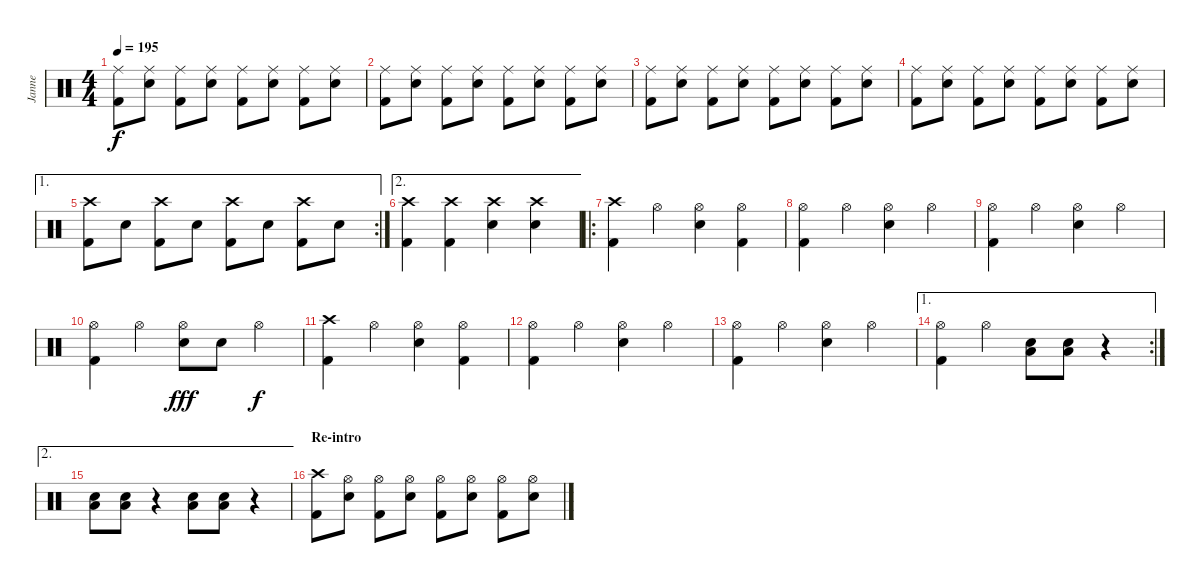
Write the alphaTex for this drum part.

\track ("Janne" "Janne") {instrument percussion}
\staff {score}
\articulation defaults
\ts (4 4)
\tempo 195
\clef neutral
\ks c
("Ride (middle)" "Kick (hit) 2").8{dy f} ("Ride (middle)" "Electric Snare (hit)").8 ("Ride (middle)" "Kick (hit) 2").8 ("Ride (middle)" "Electric Snare (hit)").8 ("Ride (middle)" "Kick (hit) 2").8 ("Ride (middle)" "Electric Snare (hit)").8 ("Ride (middle)" "Kick (hit) 2").8 ("Ride (middle)" "Electric Snare (hit)").8 |
("Ride (middle)" "Kick (hit) 2").8 ("Ride (middle)" "Electric Snare (hit)").8 ("Ride (middle)" "Kick (hit) 2").8 ("Ride (middle)" "Electric Snare (hit)").8 ("Ride (middle)" "Kick (hit) 2").8 ("Ride (middle)" "Electric Snare (hit)").8 ("Ride (middle)" "Kick (hit) 2").8 ("Ride (middle)" "Electric Snare (hit)").8 |
("Ride (middle)" "Kick (hit) 2").8 ("Ride (middle)" "Electric Snare (hit)").8 ("Ride (middle)" "Kick (hit) 2").8 ("Ride (middle)" "Electric Snare (hit)").8 ("Ride (middle)" "Kick (hit) 2").8 ("Ride (middle)" "Electric Snare (hit)").8 ("Ride (middle)" "Kick (hit) 2").8 ("Ride (middle)" "Electric Snare (hit)").8 |
("Ride (middle)" "Kick (hit) 2").8 ("Ride (middle)" "Electric Snare (hit)").8 ("Ride (middle)" "Kick (hit) 2").8 ("Ride (middle)" "Electric Snare (hit)").8 ("Ride (middle)" "Kick (hit) 2").8 ("Ride (middle)" "Electric Snare (hit)").8 ("Ride (middle)" "Kick (hit) 2").8 ("Ride (middle)" "Electric Snare (hit)").8 |
\ae 1
\rc 2
("Crash high (hit)" "Kick (hit) 2").8 "Electric Snare (hit)".8 ("Crash high (hit)" "Kick (hit) 2").8 "Electric Snare (hit)".8 ("Crash high (hit)" "Kick (hit) 2").8 "Electric Snare (hit)".8 ("Crash high (hit)" "Kick (hit) 2").8 "Electric Snare (hit)".8 |
\ae 2
("Crash high (hit)" "Kick (hit) 2").4 ("Crash high (hit)" "Kick (hit) 2").4 ("Crash high (hit)" "Electric Snare (hit)").4 ("Crash high (hit)" "Electric Snare (hit)").4 |
\ro
("Crash high (hit)" "Kick (hit) 2").4 "Hi-Hat (open)".4 ("Hi-Hat (open)" "Electric Snare (hit)").4 ("Hi-Hat (open)" "Kick (hit) 2").4 |
("Hi-Hat (open)" "Kick (hit) 2").4 "Hi-Hat (open)".4 ("Hi-Hat (open)" "Electric Snare (hit)").4 "Hi-Hat (open)".4 |
("Hi-Hat (open)" "Kick (hit) 2").4 "Hi-Hat (open)".4 ("Hi-Hat (open)" "Electric Snare (hit)").4 "Hi-Hat (open)".4 |
("Hi-Hat (open)" "Kick (hit) 2").4 "Hi-Hat (open)".4 ("Hi-Hat (open)" "Electric Snare (hit)").8{dy fff} "Electric Snare (hit)".8 "Hi-Hat (open)".4{dy f} |
("Crash high (hit)" "Kick (hit) 2").4 "Hi-Hat (open)".4 ("Hi-Hat (open)" "Electric Snare (hit)").4 ("Hi-Hat (open)" "Kick (hit) 2").4 |
("Hi-Hat (open)" "Kick (hit) 2").4 "Hi-Hat (open)".4 ("Hi-Hat (open)" "Electric Snare (hit)").4 "Hi-Hat (open)".4 |
("Hi-Hat (open)" "Kick (hit) 2").4 "Hi-Hat (open)".4 ("Hi-Hat (open)" "Electric Snare (hit)").4 "Hi-Hat (open)".4 |
\ae 1
\rc 2
("Hi-Hat (open)" "Kick (hit) 2").4 "Hi-Hat (open)".4 ("Low Floor Tom (hit)" "Electric Snare (hit)").8 ("Low Floor Tom (hit)" "Electric Snare (hit)").8 r.4 |
\ae 2
("Low Floor Tom (hit)" "Electric Snare (hit)").8 ("Low Floor Tom (hit)" "Electric Snare (hit)").8 r.4 ("Low Floor Tom (hit)" "Electric Snare (hit)").8 ("Low Floor Tom (hit)" "Electric Snare (hit)").8 r.4 |
\section ("" "Re-intro")
("Crash high (hit)" "Kick (hit) 2").8 ("Hi-Hat (open)" "Electric Snare (hit)").8 ("Hi-Hat (open)" "Kick (hit) 2").8 ("Hi-Hat (open)" "Electric Snare (hit)").8 ("Hi-Hat (open)" "Kick (hit) 2").8 ("Hi-Hat (open)" "Electric Snare (hit)").8 ("Hi-Hat (open)" "Kick (hit) 2").8 ("Hi-Hat (open)" "Electric Snare (hit)").8
